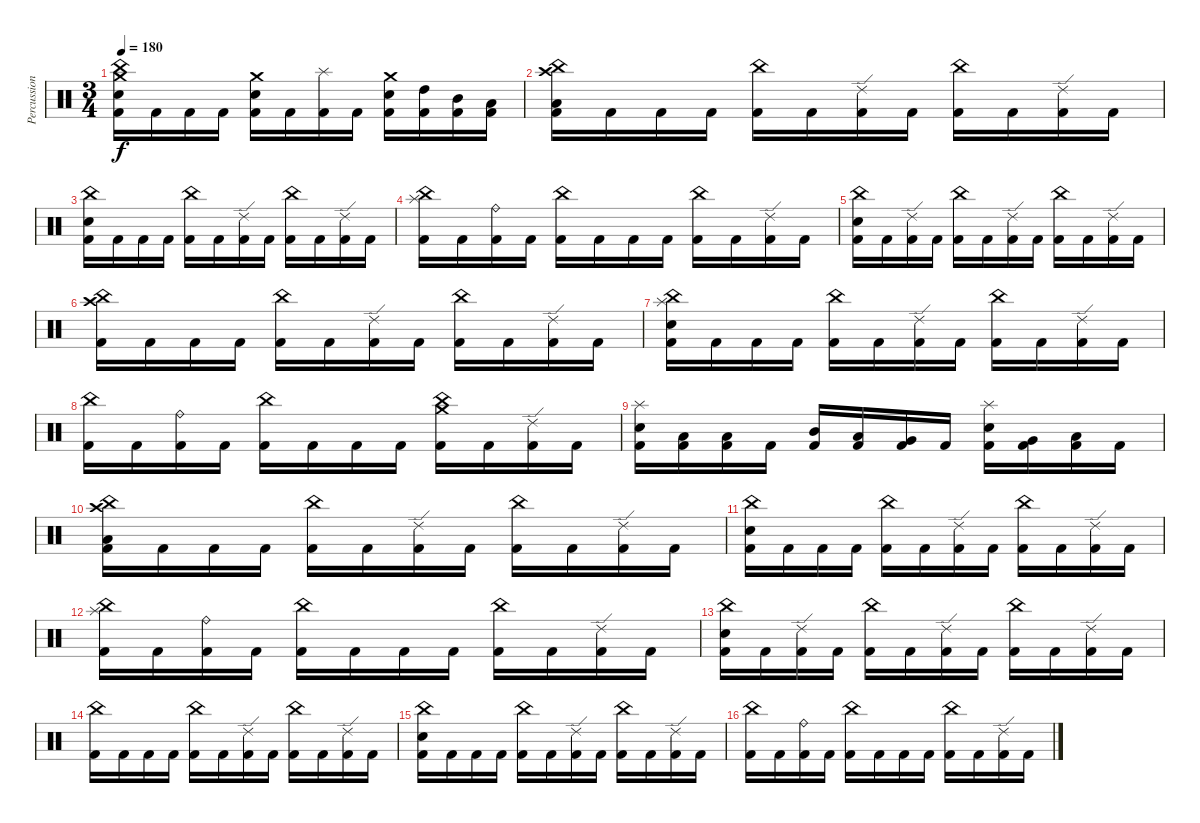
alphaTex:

\track ("Percussion" "Percussion") {instrument percussion}
\staff {score}
\articulation defaults
\ts (3 4)
\tempo 180
\clef neutral
\ks c
("Crash medium (hit)" "China (hit)" "Electric Snare (hit)" "Kick (hit) 2").16{dy f} "Kick (hit) 2".16 "Kick (hit) 2".16 "Kick (hit) 2".16 ("Crash medium (hit)" "Electric Snare (hit)" "Kick (hit) 2").16 "Kick (hit) 2".16 ("Splash (hit)" "Kick (hit) 2").16 "Kick (hit) 2".16 ("Crash medium (hit)" "Electric Snare (hit)" "Kick (hit) 2").16 ("High Tom (hit)" "Kick (hit) 2").16 ("Mid Tom (hit)" "Kick (hit) 2").16 ("Low Tom (hit)" "Kick (hit) 2").16 |
("Crash high (hit)" "China (hit)" "Low Floor Tom (hit)" "Kick (hit) 2").16 "Kick (hit) 2".16 "Kick (hit) 2".16 "Kick (hit) 2".16 ("China (hit)" "Kick (hit) 2").16 "Kick (hit) 2".16 ("Ride (edge) 2" "Kick (hit) 2").16 "Kick (hit) 2".16 ("China (hit)" "Kick (hit) 2").16 "Kick (hit) 2".16 ("Ride (edge) 2" "Kick (hit) 2").16 "Kick (hit) 2".16 |
("China (hit)" "Electric Snare (hit)" "Kick (hit) 2").16 "Kick (hit) 2".16 "Kick (hit) 2".16 "Kick (hit) 2".16 ("China (hit)" "Kick (hit) 2").16 "Kick (hit) 2".16 ("Ride (edge) 2" "Kick (hit) 2").16 "Kick (hit) 2".16 ("China (hit)" "Kick (hit) 2").16 "Kick (hit) 2".16 ("Ride (edge) 2" "Kick (hit) 2").16 "Kick (hit) 2".16 |
("China (hit)" "Splash (hit)" "Kick (hit) 2").16 "Kick (hit) 2".16 ("Ride (bell)" "Kick (hit) 2").16 "Kick (hit) 2".16 ("China (hit)" "Kick (hit) 2").16 "Kick (hit) 2".16 "Kick (hit) 2".16 "Kick (hit) 2".16 ("China (hit)" "Kick (hit) 2").16 "Kick (hit) 2".16 ("Ride (edge) 2" "Kick (hit) 2").16 "Kick (hit) 2".16 |
("China (hit)" "Electric Snare (hit)" "Kick (hit) 2").16 "Kick (hit) 2".16 ("Ride (edge) 2" "Kick (hit) 2").16 "Kick (hit) 2".16 ("China (hit)" "Kick (hit) 2").16 "Kick (hit) 2".16 ("Ride (edge) 2" "Kick (hit) 2").16 "Kick (hit) 2".16 ("China (hit)" "Kick (hit) 2").16 "Kick (hit) 2".16 ("Ride (edge) 2" "Kick (hit) 2").16 "Kick (hit) 2".16 |
("China (hit)" "Crash high (hit)" "Kick (hit) 2").16 "Kick (hit) 2".16 "Kick (hit) 2".16 "Kick (hit) 2".16 ("China (hit)" "Kick (hit) 2").16 "Kick (hit) 2".16 ("Ride (edge) 2" "Kick (hit) 2").16 "Kick (hit) 2".16 ("China (hit)" "Kick (hit) 2").16 "Kick (hit) 2".16 ("Ride (edge) 2" "Kick (hit) 2").16 "Kick (hit) 2".16 |
("China (hit)" "Splash (hit)" "Electric Snare (hit)" "Kick (hit) 2").16 "Kick (hit) 2".16 "Kick (hit) 2".16 "Kick (hit) 2".16 ("China (hit)" "Kick (hit) 2").16 "Kick (hit) 2".16 ("Ride (edge) 2" "Kick (hit) 2").16 "Kick (hit) 2".16 ("China (hit)" "Kick (hit) 2").16 "Kick (hit) 2".16 ("Ride (edge) 2" "Kick (hit) 2").16 "Kick (hit) 2".16 |
("China (hit)" "Kick (hit) 2").16 "Kick (hit) 2".16 ("Ride (bell)" "Kick (hit) 2").16 "Kick (hit) 2".16 ("China (hit)" "Kick (hit) 2").16 "Kick (hit) 2".16 "Kick (hit) 2".16 "Kick (hit) 2".16 ("China (hit)" "Crash medium (hit)" "Kick (hit) 2").16 "Kick (hit) 2".16 ("Ride (edge) 2" "Kick (hit) 2").16 "Kick (hit) 2".16 |
("Splash (hit)" "Electric Snare (hit)" "Kick (hit) 2").16 ("Low Tom (hit)" "Kick (hit) 2").16 ("Low Floor Tom (hit)" "Kick (hit) 2").16 "Kick (hit) 2".16 ("Mid Tom (hit)" "Kick (hit) 2").16 ("Low Tom (hit)" "Kick (hit) 2").16 ("Very Low Tom (hit)" "Kick (hit) 2").16 "Kick (hit) 2".16 ("Splash (hit)" "Electric Snare (hit)" "Kick (hit) 2").16 ("Very Low Tom (hit)" "Kick (hit) 2").16 ("Low Floor Tom (hit)" "Kick (hit) 2").16 "Kick (hit) 2".16 |
("Crash high (hit)" "China (hit)" "Low Floor Tom (hit)" "Kick (hit) 2").16 "Kick (hit) 2".16 "Kick (hit) 2".16 "Kick (hit) 2".16 ("China (hit)" "Kick (hit) 2").16 "Kick (hit) 2".16 ("Ride (edge) 2" "Kick (hit) 2").16 "Kick (hit) 2".16 ("China (hit)" "Kick (hit) 2").16 "Kick (hit) 2".16 ("Ride (edge) 2" "Kick (hit) 2").16 "Kick (hit) 2".16 |
("China (hit)" "Electric Snare (hit)" "Kick (hit) 2").16 "Kick (hit) 2".16 "Kick (hit) 2".16 "Kick (hit) 2".16 ("China (hit)" "Kick (hit) 2").16 "Kick (hit) 2".16 ("Ride (edge) 2" "Kick (hit) 2").16 "Kick (hit) 2".16 ("China (hit)" "Kick (hit) 2").16 "Kick (hit) 2".16 ("Ride (edge) 2" "Kick (hit) 2").16 "Kick (hit) 2".16 |
("China (hit)" "Splash (hit)" "Kick (hit) 2").16 "Kick (hit) 2".16 ("Ride (bell)" "Kick (hit) 2").16 "Kick (hit) 2".16 ("China (hit)" "Kick (hit) 2").16 "Kick (hit) 2".16 "Kick (hit) 2".16 "Kick (hit) 2".16 ("China (hit)" "Kick (hit) 2").16 "Kick (hit) 2".16 ("Ride (edge) 2" "Kick (hit) 2").16 "Kick (hit) 2".16 |
("China (hit)" "Electric Snare (hit)" "Kick (hit) 2").16 "Kick (hit) 2".16 ("Ride (edge) 2" "Kick (hit) 2").16 "Kick (hit) 2".16 ("China (hit)" "Kick (hit) 2").16 "Kick (hit) 2".16 ("Ride (edge) 2" "Kick (hit) 2").16 "Kick (hit) 2".16 ("China (hit)" "Kick (hit) 2").16 "Kick (hit) 2".16 ("Ride (edge) 2" "Kick (hit) 2").16 "Kick (hit) 2".16 |
("China (hit)" "Kick (hit) 2").16 "Kick (hit) 2".16 "Kick (hit) 2".16 "Kick (hit) 2".16 ("China (hit)" "Kick (hit) 2").16 "Kick (hit) 2".16 ("Ride (edge) 2" "Kick (hit) 2").16 "Kick (hit) 2".16 ("China (hit)" "Kick (hit) 2").16 "Kick (hit) 2".16 ("Ride (edge) 2" "Kick (hit) 2").16 "Kick (hit) 2".16 |
("China (hit)" "Electric Snare (hit)" "Kick (hit) 2").16 "Kick (hit) 2".16 "Kick (hit) 2".16 "Kick (hit) 2".16 ("China (hit)" "Kick (hit) 2").16 "Kick (hit) 2".16 ("Ride (edge) 2" "Kick (hit) 2").16 "Kick (hit) 2".16 ("China (hit)" "Kick (hit) 2").16 "Kick (hit) 2".16 ("Ride (edge) 2" "Kick (hit) 2").16 "Kick (hit) 2".16 |
("China (hit)" "Kick (hit) 2").16 "Kick (hit) 2".16 ("Ride (bell)" "Kick (hit) 2").16 "Kick (hit) 2".16 ("China (hit)" "Kick (hit) 2").16 "Kick (hit) 2".16 "Kick (hit) 2".16 "Kick (hit) 2".16 ("China (hit)" "Kick (hit) 2").16 "Kick (hit) 2".16 ("Ride (edge) 2" "Kick (hit) 2").16 "Kick (hit) 2".16
